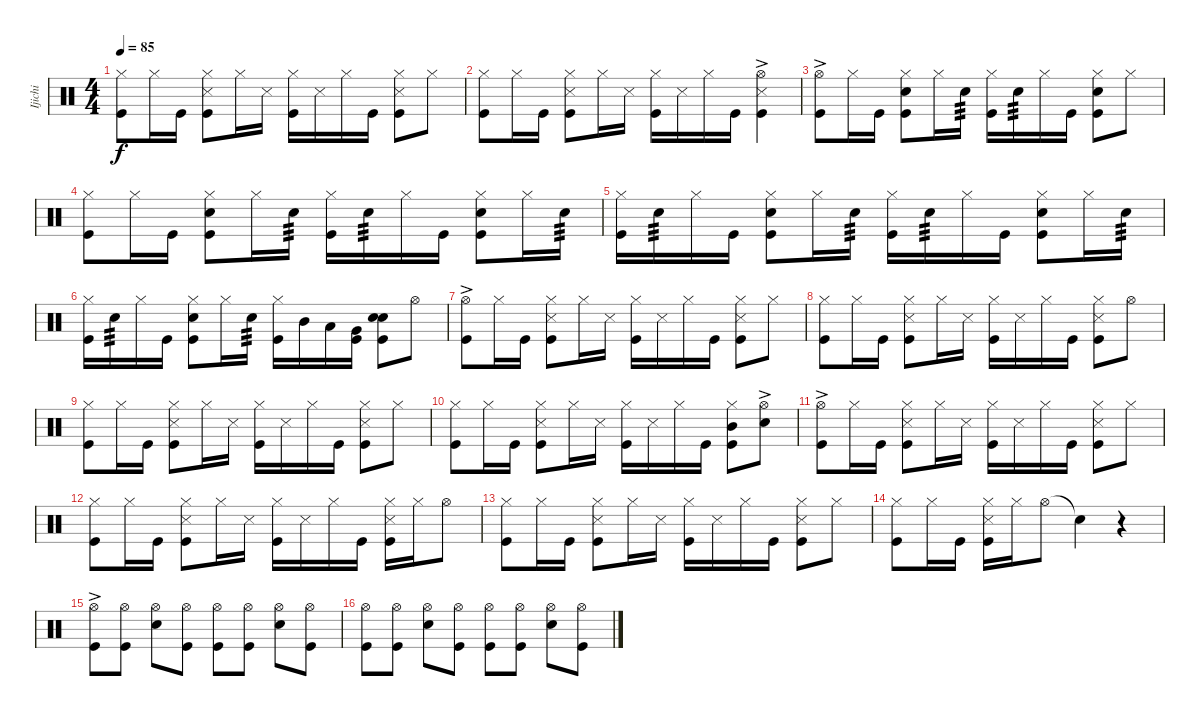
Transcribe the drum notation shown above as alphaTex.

\track ("Ijichi" "Ijichi") {instrument percussion}
\staff {score}
\articulation defaults
\ts (4 4)
\tempo 85
\clef neutral
\ks c
("Hi-Hat (closed)" "Kick (hit)").8{dy f} "Hi-Hat (closed)".16 "Kick (hit)".16 ("Hi-Hat (closed)" "Snare (side stick) 3" "Kick (hit)").8 "Hi-Hat (closed)".16 "Snare (side stick) 3".16 ("Hi-Hat (closed)" "Kick (hit)").16 "Snare (side stick) 3".16 "Hi-Hat (closed)".16 "Kick (hit)".16 ("Hi-Hat (closed)" "Snare (side stick) 3" "Kick (hit)").8 "Hi-Hat (closed)".8 |
("Hi-Hat (closed)" "Kick (hit)").8 "Hi-Hat (closed)".16 "Kick (hit)".16 ("Hi-Hat (closed)" "Snare (side stick) 3" "Kick (hit)").8 "Hi-Hat (closed)".16 "Snare (side stick) 3".16 ("Hi-Hat (closed)" "Kick (hit)").16 "Snare (side stick) 3".16 "Hi-Hat (closed)".16 "Kick (hit)".16 ("Hi-Hat (open)"{ac} "Snare (side stick) 3" "Kick (hit)").4 |
("Hi-Hat (open)"{ac} "Kick (hit)").8 "Hi-Hat (closed)".16 "Kick (hit)".16 ("Hi-Hat (closed)" "Snare (hit) 2" "Kick (hit)").8 "Hi-Hat (closed)".16 "Snare (hit) 2".16{tp 3} ("Hi-Hat (closed)" "Kick (hit)").16 "Snare (hit) 2".16{tp 3} "Hi-Hat (closed)".16 "Kick (hit)".16 ("Hi-Hat (closed)" "Snare (hit) 2" "Kick (hit)").8 "Hi-Hat (closed)".8 |
("Hi-Hat (closed)" "Kick (hit)").8 "Hi-Hat (closed)".16 "Kick (hit)".16 ("Hi-Hat (closed)" "Snare (hit) 2" "Kick (hit)").8 "Hi-Hat (closed)".16 "Snare (hit) 2".16{tp 3} ("Hi-Hat (closed)" "Kick (hit)").16 "Snare (hit) 2".16{tp 3} "Hi-Hat (closed)".16 "Kick (hit)".16 ("Hi-Hat (closed)" "Snare (hit) 2" "Kick (hit)").8 "Hi-Hat (closed)".16 "Snare (hit) 2".16{tp 3} |
("Hi-Hat (closed)" "Kick (hit)").16 "Snare (hit) 2".16{tp 3} "Hi-Hat (closed)".16 "Kick (hit)".16 ("Hi-Hat (closed)" "Snare (hit) 2" "Kick (hit)").8 "Hi-Hat (closed)".16 "Snare (hit) 2".16{tp 3} ("Hi-Hat (closed)" "Kick (hit)").16 "Snare (hit) 2".16{tp 3} "Hi-Hat (closed)".16 "Kick (hit)".16 ("Hi-Hat (closed)" "Snare (hit) 2" "Kick (hit)").8 "Hi-Hat (closed)".16 "Snare (hit) 2".16{tp 3} |
("Hi-Hat (closed)" "Kick (hit)").16 "Snare (hit) 2".16{tp 3} "Hi-Hat (closed)".16 "Kick (hit)".16 ("Hi-Hat (closed)" "Snare (hit) 2" "Kick (hit)").8 "Hi-Hat (closed)".16 "Snare (hit) 2".16{tp 3} ("Hi-Hat (closed)" "Kick (hit)").16 "Mid Tom (hit)".16 "Low Tom (hit)".16 ("Very Low Tom (hit)" "Kick (hit)").16 ("Snare (hit) 2" "Snare (hit) 2" "Kick (hit)").8 "Hi-Hat (open)".8 |
("Hi-Hat (open)"{ac} "Kick (hit)").8 "Hi-Hat (closed)".16 "Kick (hit)".16 ("Hi-Hat (closed)" "Snare (side stick) 3" "Kick (hit)").8 "Hi-Hat (closed)".16 "Snare (side stick) 3".16 ("Hi-Hat (closed)" "Kick (hit)").16 "Snare (side stick) 3".16 "Hi-Hat (closed)".16 "Kick (hit)".16 ("Hi-Hat (closed)" "Snare (side stick) 3" "Kick (hit)").8 "Hi-Hat (closed)".8 |
("Hi-Hat (closed)" "Kick (hit)").8 "Hi-Hat (closed)".16 "Kick (hit)".16 ("Hi-Hat (closed)" "Snare (side stick) 3" "Kick (hit)").8 "Hi-Hat (closed)".16 "Snare (side stick) 3".16 ("Hi-Hat (closed)" "Kick (hit)").16 "Snare (side stick) 3".16 "Hi-Hat (closed)".16 "Kick (hit)".16 ("Hi-Hat (closed)" "Snare (side stick) 3" "Kick (hit)").8 "Hi-Hat (open)".8 |
("Hi-Hat (closed)" "Kick (hit)").8 "Hi-Hat (closed)".16 "Kick (hit)".16 ("Hi-Hat (closed)" "Snare (side stick) 3" "Kick (hit)").8 "Hi-Hat (closed)".16 "Snare (side stick) 3".16 ("Hi-Hat (closed)" "Kick (hit)").16 "Snare (side stick) 3".16 "Hi-Hat (closed)".16 "Kick (hit)".16 ("Hi-Hat (closed)" "Snare (side stick) 3" "Kick (hit)").8 "Hi-Hat (closed)".8 |
("Hi-Hat (closed)" "Kick (hit)").8 "Hi-Hat (closed)".16 "Kick (hit)".16 ("Hi-Hat (closed)" "Snare (side stick) 3" "Kick (hit)").8 "Hi-Hat (closed)".16 "Snare (side stick) 3".16 ("Hi-Hat (closed)" "Kick (hit)").16 "Snare (side stick) 3".16 "Hi-Hat (closed)".16 "Kick (hit)".16 ("Hi-Hat (closed)" "Mid Tom (hit)" "Kick (hit)").8 ("Hi-Hat (open)"{ac} "Snare (hit) 2").8 |
("Hi-Hat (open)"{ac} "Kick (hit)").8 "Hi-Hat (closed)".16 "Kick (hit)".16 ("Hi-Hat (closed)" "Snare (side stick) 3" "Kick (hit)").8 "Hi-Hat (closed)".16 "Snare (side stick) 3".16 ("Hi-Hat (closed)" "Kick (hit)").16 "Snare (side stick) 3".16 "Hi-Hat (closed)".16 "Kick (hit)".16 ("Hi-Hat (closed)" "Snare (side stick) 3" "Kick (hit)").8 "Hi-Hat (closed)".8 |
("Hi-Hat (closed)" "Kick (hit)").8 "Hi-Hat (closed)".16 "Kick (hit)".16 ("Hi-Hat (closed)" "Snare (side stick) 3" "Kick (hit)").8 "Hi-Hat (closed)".16 "Snare (side stick) 3".16 ("Hi-Hat (closed)" "Kick (hit)").16 "Snare (side stick) 3".16 "Hi-Hat (closed)".16 "Kick (hit)".16 ("Hi-Hat (closed)" "Snare (side stick) 3" "Kick (hit)").16 "Hi-Hat (closed)".16 "Hi-Hat (open)".8 |
("Hi-Hat (closed)" "Kick (hit)").8 "Hi-Hat (closed)".16 "Kick (hit)".16 ("Hi-Hat (closed)" "Snare (side stick) 3" "Kick (hit)").8 "Hi-Hat (closed)".16 "Snare (side stick) 3".16 ("Hi-Hat (closed)" "Kick (hit)").16 "Snare (side stick) 3".16 "Hi-Hat (closed)".16 "Kick (hit)".16 ("Hi-Hat (closed)" "Snare (side stick) 3" "Kick (hit)").8 "Hi-Hat (closed)".8 |
("Hi-Hat (closed)" "Kick (hit)").8 "Hi-Hat (closed)".16 "Kick (hit)".16 ("Hi-Hat (closed)" "Snare (side stick) 3" "Kick (hit)").16 "Hi-Hat (closed)".16 "Hi-Hat (open)".8 "Snare (hit)"{t}.4 r.4 |
("Hi-Hat (open)"{ac} "Kick (hit)").8 ("Hi-Hat (open)" "Kick (hit)").8 ("Hi-Hat (open)" "Snare (hit) 2").8 ("Hi-Hat (open)" "Kick (hit)").8 ("Hi-Hat (open)" "Kick (hit)").8 ("Hi-Hat (open)" "Kick (hit)").8 ("Hi-Hat (open)" "Snare (hit) 2").8 ("Hi-Hat (open)" "Kick (hit)").8 |
("Hi-Hat (open)" "Kick (hit)").8 ("Hi-Hat (open)" "Kick (hit)").8 ("Hi-Hat (open)" "Snare (hit) 2").8 ("Hi-Hat (open)" "Kick (hit)").8 ("Hi-Hat (open)" "Kick (hit)").8 ("Hi-Hat (open)" "Kick (hit)").8 ("Hi-Hat (open)" "Snare (hit) 2").8 ("Hi-Hat (open)" "Kick (hit)").8
